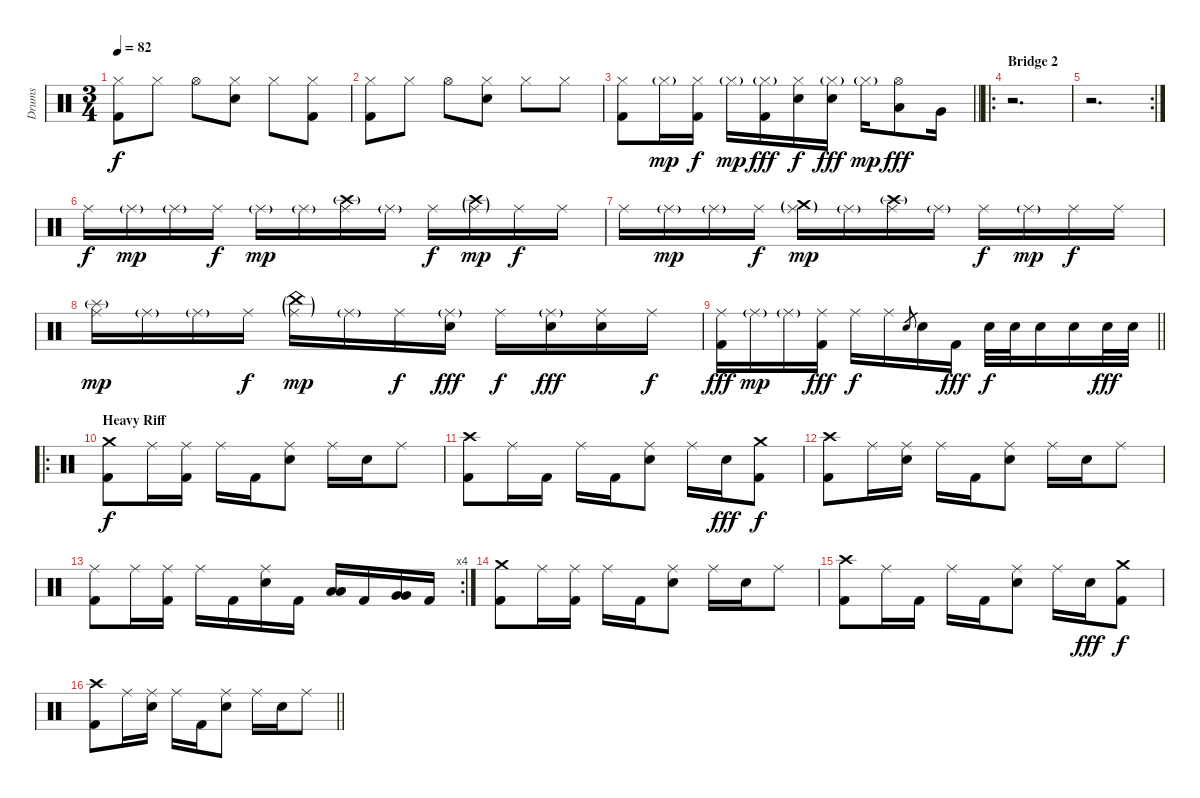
\track ("Drums" "Drums") {instrument percussion}
\staff {score}
\articulation defaults
\ts (3 4)
\tempo 82
\clef neutral
\ks c
("Hi-Hat (closed)" "Kick (hit) 2").8{dy f} "Hi-Hat (closed)".8 "Hi-Hat (open)".8 ("Hi-Hat (closed)" "Electric Snare (hit)").8 "Hi-Hat (closed)".8 ("Hi-Hat (closed)" "Kick (hit) 2").8 |
("Hi-Hat (closed)" "Kick (hit) 2").8 "Hi-Hat (closed)".8 "Hi-Hat (open)".8 ("Hi-Hat (closed)" "Electric Snare (hit)").8 "Hi-Hat (closed)".8 "Hi-Hat (closed)".8 |
\barLineRight lightlight
("Hi-Hat (closed)" "Kick (hit) 2").8 "Hi-Hat (closed)"{g}.16{dy mp} ("Hi-Hat (closed)" "Kick (hit) 2").16{dy f} "Hi-Hat (closed)"{g}.16{dy mp} ("Hi-Hat (closed)"{g} "Kick (hit) 2").16{dy fff} ("Hi-Hat (closed)" "Electric Snare (hit)").16{dy f} ("Hi-Hat (closed)"{g} "Electric Snare (hit)").16{dy fff} "Hi-Hat (closed)"{g}.16{dy mp} ("Hi-Hat (open)" "Low Tom (hit)").8{dy fff} "Very Low Tom (hit)".16 |
\ro
\section ("" "Bridge 2")
r.2{d} |
\rc 2
r.2{d} |
"Ride (middle)".16{dy f} "Ride (middle)"{g}.16{dy mp} "Ride (middle)"{g}.16 "Ride (middle)".16{dy f} "Ride (middle)"{g}.16{dy mp} "Ride (middle)"{g}.16 ("Ride (middle)" "Crash high (hit)"{g}).16 "Ride (middle)"{g}.16 "Ride (middle)".16{dy f} ("Ride (middle)"{g} "Crash high (hit)"{g}).16{dy mp} "Ride (middle)".16{dy f} "Ride (middle)".16 |
"Ride (middle)".16 "Ride (middle)"{g}.16{dy mp} "Ride (middle)"{g}.16 "Ride (middle)".16{dy f} ("Ride (middle)"{g} "Crash medium (hit)"{g}).16{dy mp} "Ride (middle)"{g}.16 ("Ride (middle)" "Crash high (hit)"{g}).16 "Ride (middle)"{g}.16 "Ride (middle)".16{dy f} "Ride (middle)"{g}.16{dy mp} "Ride (middle)".16{dy f} "Ride (middle)".16 |
("Ride (middle)" "Splash (hit)"{g}).16{dy mp} "Ride (middle)"{g}.16 "Ride (middle)"{g}.16 "Ride (middle)".16{dy f} ("Ride (middle)"{g} "China (hit)"{g}).16{dy mp} "Ride (middle)"{g}.16 "Ride (middle)".16{dy f} ("Ride (middle)"{g} "Electric Snare (hit)").16{dy fff} "Ride (middle)".16{dy f} ("Ride (middle)"{g} "Electric Snare (hit)").16{dy fff} ("Ride (middle)" "Electric Snare (hit)").16 "Ride (middle)".16{dy f} |
\barLineRight lightlight
("Ride (middle)" "Kick (hit) 2").16{dy fff} "Ride (middle)"{g}.16{dy mp} "Ride (middle)"{g}.16 ("Ride (middle)" "Kick (hit) 2").16{dy fff} "Ride (middle)".16{dy f} "Ride (middle)".16 "Electric Snare (hit)".8{gr} "Electric Snare (hit)".16 "Kick (hit) 2".16{dy fff} "Electric Snare (hit)".32{dy f} "Electric Snare (hit)".32 "Electric Snare (hit)".16 "Electric Snare (hit)".16 "Electric Snare (hit)".32{dy fff} "Electric Snare (hit)".32 |
\ro
\section ("" "Heavy Riff")
("Crash medium (hit)" "Kick (hit) 2").8{dy f} "Ride (middle)".16 ("Ride (middle)" "Kick (hit) 2").16 "Ride (middle)".16 "Kick (hit) 2".16 ("Ride (middle)" "Electric Snare (hit)").8 "Ride (middle)".16 "Electric Snare (hit)".16 "Ride (middle)".8 |
("Crash high (hit)" "Kick (hit) 2").8 "Ride (middle)".16 "Kick (hit) 2".16 "Ride (middle)".16 "Kick (hit) 2".16 ("Ride (middle)" "Electric Snare (hit)").8 "Ride (middle)".16 "Electric Snare (hit)".16{dy fff} ("Crash medium (hit)" "Kick (hit) 2").8{dy f} |
("Crash high (hit)" "Kick (hit) 2").8 "Ride (middle)".16 ("Ride (middle)" "Electric Snare (hit)").16 "Ride (middle)".16 "Kick (hit) 2".16 ("Ride (middle)" "Electric Snare (hit)").8 "Ride (middle)".16 "Electric Snare (hit)".16 "Ride (middle)".8 |
\rc 4
("Ride (middle)" "Kick (hit) 2").8 "Ride (middle)".16 ("Ride (middle)" "Kick (hit) 2").16 "Ride (middle)".16 "Kick (hit) 2".16 ("Ride (middle)" "Electric Snare (hit)").16 "Kick (hit) 2".16 ("Low Tom (hit)" "Low Tom (hit)").16{bd 60} "Kick (hit) 2".16 ("Very Low Tom (hit)" "Very Low Tom (hit)").16{bd 60} "Kick (hit) 2".16 |
("Crash medium (hit)" "Kick (hit) 2").8 "Ride (middle)".16 ("Ride (middle)" "Kick (hit) 2").16 "Ride (middle)".16 "Kick (hit) 2".16 ("Ride (middle)" "Electric Snare (hit)").8 "Ride (middle)".16 "Electric Snare (hit)".16 "Ride (middle)".8 |
("Crash high (hit)" "Kick (hit) 2").8 "Ride (middle)".16 "Kick (hit) 2".16 "Ride (middle)".16 "Kick (hit) 2".16 ("Ride (middle)" "Electric Snare (hit)").8 "Ride (middle)".16 "Electric Snare (hit)".16{dy fff} ("Crash medium (hit)" "Kick (hit) 2").8{dy f} |
\barLineRight lightlight
("Crash high (hit)" "Kick (hit) 2").8 "Ride (middle)".16 ("Ride (middle)" "Electric Snare (hit)").16 "Ride (middle)".16 "Kick (hit) 2".16 ("Ride (middle)" "Electric Snare (hit)").8 "Ride (middle)".16 "Electric Snare (hit)".16 "Ride (middle)".8
